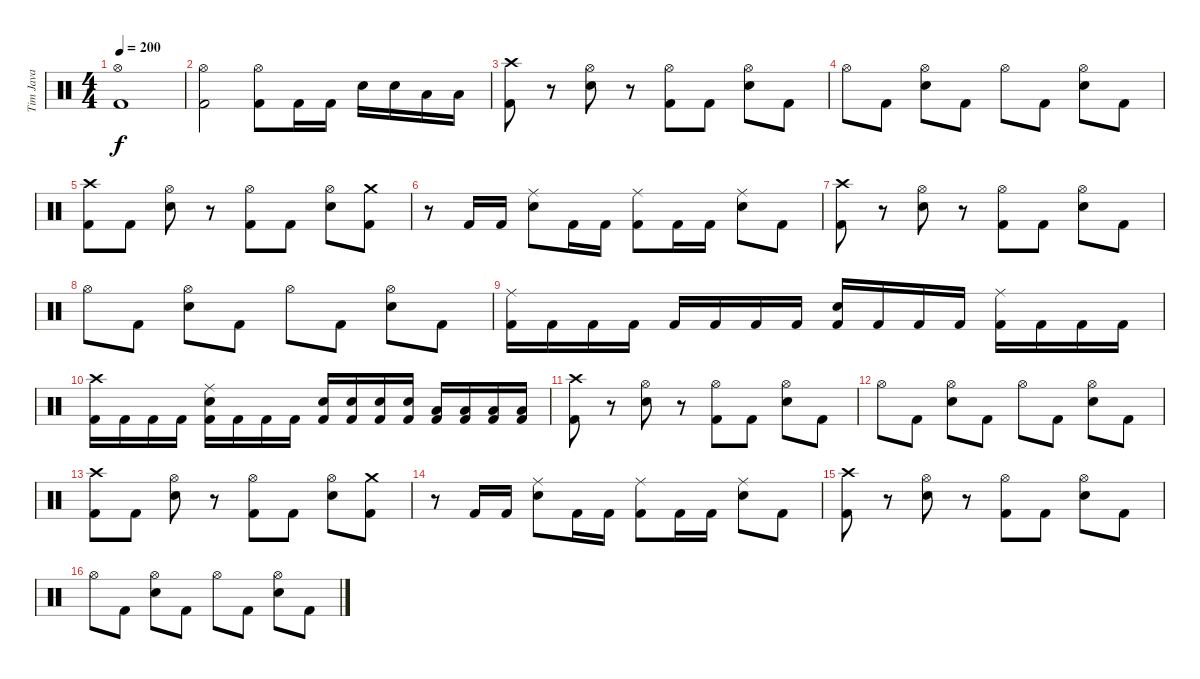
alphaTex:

\track ("Tim Java" "Tim Java") {instrument percussion}
\staff {score}
\articulation defaults
\ts (4 4)
\tempo 200
\clef neutral
\ks c
("Hi-Hat (open)" "Kick (hit) 2").1{dy f} |
("Hi-Hat (open)" "Kick (hit) 2").2 ("Hi-Hat (open)" "Kick (hit) 2").8 "Kick (hit) 2".16 "Kick (hit) 2".16 "Electric Snare (hit)".16 "Electric Snare (hit)".16 "Low Tom (hit)".16 "Low Tom (hit)".16 |
("Crash high (hit)" "Kick (hit) 2").8 r.8 ("Hi-Hat (open)" "Electric Snare (hit)").8 r.8 ("Hi-Hat (open)" "Kick (hit) 2").8 "Kick (hit) 2".8 ("Hi-Hat (open)" "Electric Snare (hit)").8 "Kick (hit) 2".8 |
"Hi-Hat (open)".8 "Kick (hit) 2".8 ("Hi-Hat (open)" "Electric Snare (hit)").8 "Kick (hit) 2".8 "Hi-Hat (open)".8 "Kick (hit) 2".8 ("Hi-Hat (open)" "Electric Snare (hit)").8 "Kick (hit) 2".8 |
("Crash high (hit)" "Kick (hit) 2").8 "Kick (hit) 2".8 ("Hi-Hat (open)" "Electric Snare (hit)").8 r.8 ("Hi-Hat (open)" "Kick (hit) 2").8 "Kick (hit) 2".8 ("Hi-Hat (open)" "Electric Snare (hit)").8 ("Crash medium (hit)" "Kick (hit) 2").8 |
r.8 "Kick (hit) 2".16 "Kick (hit) 2".16 ("Ride (middle)" "Electric Snare (hit)").8 "Kick (hit) 2".16 "Kick (hit) 2".16 ("Ride (middle)" "Kick (hit) 2").8 "Kick (hit) 2".16 "Kick (hit) 2".16 ("Ride (middle)" "Electric Snare (hit)").8 "Kick (hit) 2".8 |
("Crash high (hit)" "Kick (hit) 2").8 r.8 ("Hi-Hat (open)" "Electric Snare (hit)").8 r.8 ("Hi-Hat (open)" "Kick (hit) 2").8 "Kick (hit) 2".8 ("Hi-Hat (open)" "Electric Snare (hit)").8 "Kick (hit) 2".8 |
"Hi-Hat (open)".8 "Kick (hit) 2".8 ("Hi-Hat (open)" "Electric Snare (hit)").8 "Kick (hit) 2".8 "Hi-Hat (open)".8 "Kick (hit) 2".8 ("Hi-Hat (open)" "Electric Snare (hit)").8 "Kick (hit) 2".8 |
("Ride (middle)" "Kick (hit) 2").16 "Kick (hit) 2".16 "Kick (hit) 2".16 "Kick (hit) 2".16 "Kick (hit) 2".16 "Kick (hit) 2".16 "Kick (hit) 2".16 "Kick (hit) 2".16 ("Electric Snare (hit)" "Kick (hit) 2").16 "Kick (hit) 2".16 "Kick (hit) 2".16 "Kick (hit) 2".16 ("Ride (middle)" "Kick (hit) 2").16 "Kick (hit) 2".16 "Kick (hit) 2".16 "Kick (hit) 2".16 |
("Crash high (hit)" "Kick (hit) 2").16 "Kick (hit) 2".16 "Kick (hit) 2".16 "Kick (hit) 2".16 ("Ride (middle)" "Electric Snare (hit)" "Kick (hit) 2").16 "Kick (hit) 2".16 "Kick (hit) 2".16 "Kick (hit) 2".16 ("Electric Snare (hit)" "Kick (hit) 2").16 ("Electric Snare (hit)" "Kick (hit) 2").16 ("Electric Snare (hit)" "Kick (hit) 2").16 ("Electric Snare (hit)" "Kick (hit) 2").16 ("Low Tom (hit)" "Kick (hit) 2").16 ("Low Tom (hit)" "Kick (hit) 2").16 ("Low Tom (hit)" "Kick (hit) 2").16 ("Low Tom (hit)" "Kick (hit) 2").16 |
("Crash high (hit)" "Kick (hit) 2").8 r.8 ("Hi-Hat (open)" "Electric Snare (hit)").8 r.8 ("Hi-Hat (open)" "Kick (hit) 2").8 "Kick (hit) 2".8 ("Hi-Hat (open)" "Electric Snare (hit)").8 "Kick (hit) 2".8 |
"Hi-Hat (open)".8 "Kick (hit) 2".8 ("Hi-Hat (open)" "Electric Snare (hit)").8 "Kick (hit) 2".8 "Hi-Hat (open)".8 "Kick (hit) 2".8 ("Hi-Hat (open)" "Electric Snare (hit)").8 "Kick (hit) 2".8 |
("Crash high (hit)" "Kick (hit) 2").8 "Kick (hit) 2".8 ("Hi-Hat (open)" "Electric Snare (hit)").8 r.8 ("Hi-Hat (open)" "Kick (hit) 2").8 "Kick (hit) 2".8 ("Hi-Hat (open)" "Electric Snare (hit)").8 ("Crash medium (hit)" "Kick (hit) 2").8 |
r.8 "Kick (hit) 2".16 "Kick (hit) 2".16 ("Ride (middle)" "Electric Snare (hit)").8 "Kick (hit) 2".16 "Kick (hit) 2".16 ("Ride (middle)" "Kick (hit) 2").8 "Kick (hit) 2".16 "Kick (hit) 2".16 ("Ride (middle)" "Electric Snare (hit)").8 "Kick (hit) 2".8 |
("Crash high (hit)" "Kick (hit) 2").8 r.8 ("Hi-Hat (open)" "Electric Snare (hit)").8 r.8 ("Hi-Hat (open)" "Kick (hit) 2").8 "Kick (hit) 2".8 ("Hi-Hat (open)" "Electric Snare (hit)").8 "Kick (hit) 2".8 |
"Hi-Hat (open)".8 "Kick (hit) 2".8 ("Hi-Hat (open)" "Electric Snare (hit)").8 "Kick (hit) 2".8 "Hi-Hat (open)".8 "Kick (hit) 2".8 ("Hi-Hat (open)" "Electric Snare (hit)").8 "Kick (hit) 2".8
